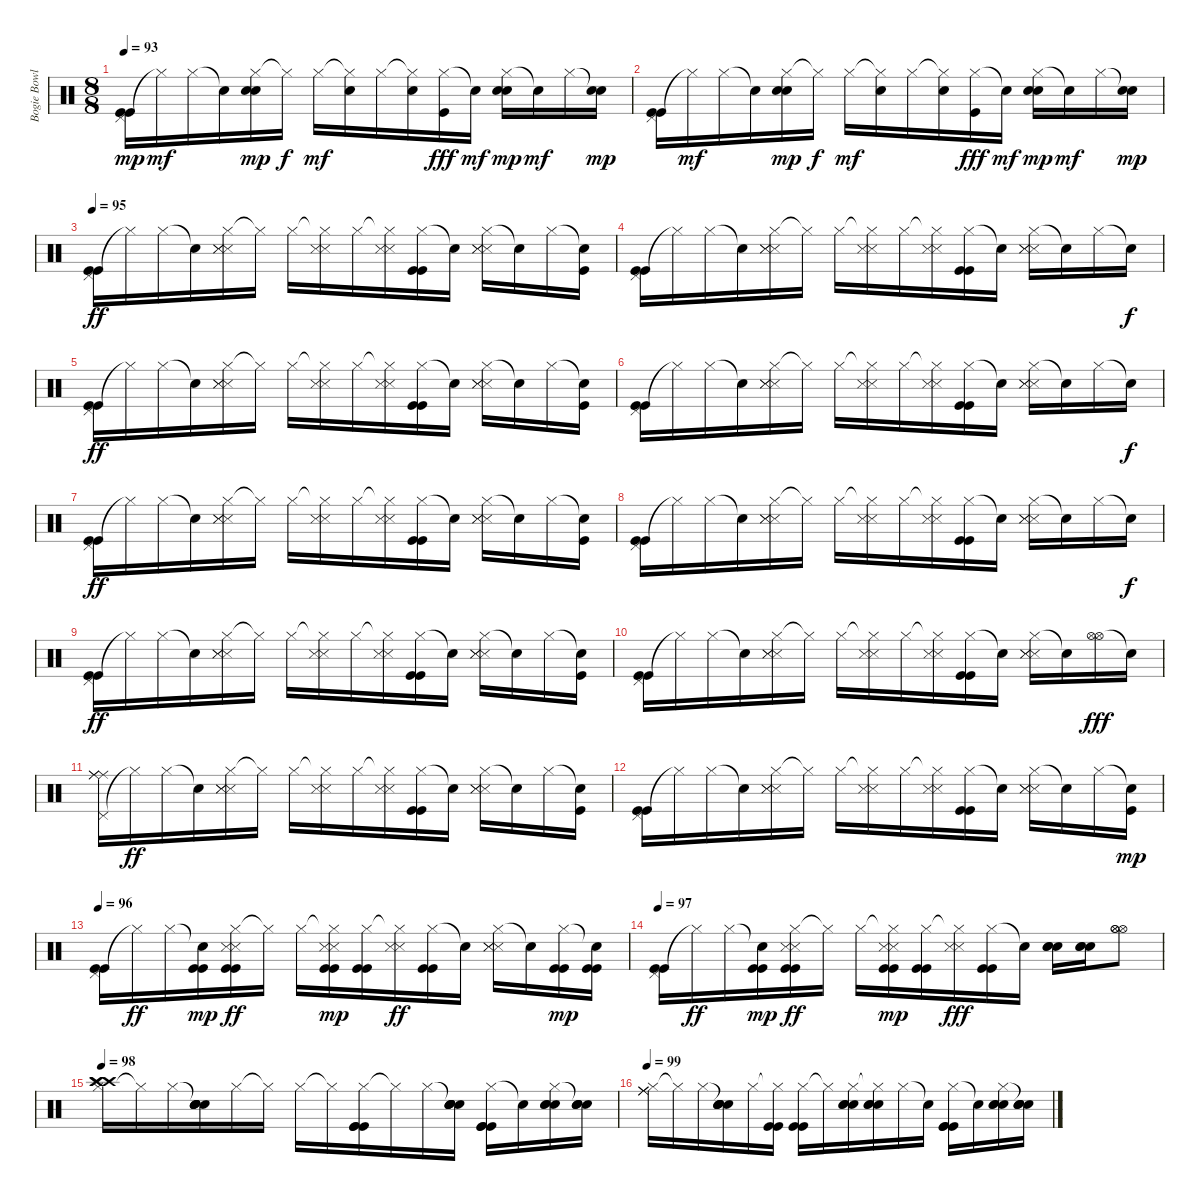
\track ("Bogie Bowles Drums" "Bogie Bowl") {instrument percussion}
\staff {score}
\articulation defaults
\ts (8 8)
\tempo 93
\clef neutral
\ks c
("Pedal Hi-Hat (hit)" "Kick (hit)" "Kick (hit)").16{dy mp} "Hi-Hat (closed)"{t}.16{dy mf} "Hi-Hat (closed)".16 "Snare (hit)"{t}.16 ("Hi-Hat (closed)" "Snare (hit) 2" "Snare (hit) 2").16{dy mp} "Hi-Hat (closed)"{t}.16{dy f} "Hi-Hat (closed)".16{dy mf} ("Hi-Hat (closed)"{t} "Snare (hit) 2").16 "Hi-Hat (closed)".16 ("Hi-Hat (closed)"{t} "Snare (hit) 2").16 ("Hi-Hat (closed)" "Kick (hit)").16{dy fff} "Snare (hit)"{t}.16{dy mf} ("Hi-Hat (closed)" "Snare (hit) 2" "Snare (hit) 2").16{dy mp} "Snare (hit)"{t}.16{dy mf} "Hi-Hat (closed)".16 ("Snare (hit)"{t} "Snare (hit) 2").16{dy mp} |
("Pedal Hi-Hat (hit)" "Kick (hit)" "Kick (hit)").16 "Hi-Hat (closed)"{t}.16{dy mf} "Hi-Hat (closed)".16 "Snare (hit)"{t}.16 ("Hi-Hat (closed)" "Snare (hit) 2" "Snare (hit) 2").16{dy mp} "Hi-Hat (closed)"{t}.16{dy f} "Hi-Hat (closed)".16{dy mf} ("Hi-Hat (closed)"{t} "Snare (hit) 2").16 "Hi-Hat (closed)".16 ("Hi-Hat (closed)"{t} "Snare (hit) 2").16 ("Hi-Hat (closed)" "Kick (hit)").16{dy fff} "Snare (hit)"{t}.16{dy mf} ("Hi-Hat (closed)" "Snare (hit) 2" "Snare (hit) 2").16{dy mp} "Snare (hit)"{t}.16{dy mf} "Hi-Hat (closed)".16 ("Snare (hit)"{t} "Snare (hit) 2").16{dy mp} |
\tempo 95
("Pedal Hi-Hat (hit)" "Kick (hit)" "Kick (hit)").16{dy ff} "Hi-Hat (closed)"{t}.16 "Hi-Hat (closed)".16 "Snare (hit)"{t}.16 ("Hi-Hat (closed)" "Snare (side stick) 3" "Snare (side stick) 3" "Snare (side stick) 3").16 "Hi-Hat (closed)"{t}.16 "Hi-Hat (closed)".16 ("Hi-Hat (closed)"{t} "Snare (side stick) 3" "Snare (side stick) 3").16 "Hi-Hat (closed)".16 ("Hi-Hat (closed)"{t} "Snare (side stick) 3" "Snare (side stick) 3").16 ("Hi-Hat (closed)" "Kick (hit)" "Kick (hit)").16 "Snare (hit)"{t}.16 ("Hi-Hat (closed)" "Snare (side stick) 3" "Snare (side stick) 3" "Snare (side stick) 3").16 "Snare (hit)"{t}.16 "Hi-Hat (closed)".16 ("Snare (hit)"{t} "Kick (hit)").16 |
("Pedal Hi-Hat (hit)" "Kick (hit)" "Kick (hit)").16 "Hi-Hat (closed)"{t}.16 "Hi-Hat (closed)".16 "Snare (hit)"{t}.16 ("Hi-Hat (closed)" "Snare (side stick) 3" "Snare (side stick) 3" "Snare (side stick) 3").16 "Hi-Hat (closed)"{t}.16 "Hi-Hat (closed)".16 ("Hi-Hat (closed)"{t} "Snare (side stick) 3" "Snare (side stick) 3").16 "Hi-Hat (closed)".16 ("Hi-Hat (closed)"{t} "Snare (side stick) 3" "Snare (side stick) 3").16 ("Hi-Hat (closed)" "Kick (hit)" "Kick (hit)").16 "Snare (hit)"{t}.16 ("Hi-Hat (closed)" "Snare (side stick) 3" "Snare (side stick) 3" "Snare (side stick) 3").16 "Snare (hit)"{t}.16 "Hi-Hat (closed)".16 "Snare (hit)"{t}.16{dy f} |
("Pedal Hi-Hat (hit)" "Kick (hit)" "Kick (hit)").16{dy ff} "Hi-Hat (closed)"{t}.16 "Hi-Hat (closed)".16 "Snare (hit)"{t}.16 ("Hi-Hat (closed)" "Snare (side stick) 3" "Snare (side stick) 3" "Snare (side stick) 3").16 "Hi-Hat (closed)"{t}.16 "Hi-Hat (closed)".16 ("Hi-Hat (closed)"{t} "Snare (side stick) 3" "Snare (side stick) 3").16 "Hi-Hat (closed)".16 ("Hi-Hat (closed)"{t} "Snare (side stick) 3" "Snare (side stick) 3").16 ("Hi-Hat (closed)" "Kick (hit)" "Kick (hit)").16 "Snare (hit)"{t}.16 ("Hi-Hat (closed)" "Snare (side stick) 3" "Snare (side stick) 3" "Snare (side stick) 3").16 "Snare (hit)"{t}.16 "Hi-Hat (closed)".16 ("Snare (hit)"{t} "Kick (hit)").16 |
("Pedal Hi-Hat (hit)" "Kick (hit)" "Kick (hit)").16 "Hi-Hat (closed)"{t}.16 "Hi-Hat (closed)".16 "Snare (hit)"{t}.16 ("Hi-Hat (closed)" "Snare (side stick) 3" "Snare (side stick) 3" "Snare (side stick) 3").16 "Hi-Hat (closed)"{t}.16 "Hi-Hat (closed)".16 ("Hi-Hat (closed)"{t} "Snare (side stick) 3" "Snare (side stick) 3").16 "Hi-Hat (closed)".16 ("Hi-Hat (closed)"{t} "Snare (side stick) 3" "Snare (side stick) 3").16 ("Hi-Hat (closed)" "Kick (hit)" "Kick (hit)").16 "Snare (hit)"{t}.16 ("Hi-Hat (closed)" "Snare (side stick) 3" "Snare (side stick) 3" "Snare (side stick) 3").16 "Snare (hit)"{t}.16 "Hi-Hat (closed)".16 "Snare (hit)"{t}.16{dy f} |
("Pedal Hi-Hat (hit)" "Kick (hit)" "Kick (hit)").16{dy ff} "Hi-Hat (closed)"{t}.16 "Hi-Hat (closed)".16 "Snare (hit)"{t}.16 ("Hi-Hat (closed)" "Snare (side stick) 3" "Snare (side stick) 3" "Snare (side stick) 3").16 "Hi-Hat (closed)"{t}.16 "Hi-Hat (closed)".16 ("Hi-Hat (closed)"{t} "Snare (side stick) 3" "Snare (side stick) 3").16 "Hi-Hat (closed)".16 ("Hi-Hat (closed)"{t} "Snare (side stick) 3" "Snare (side stick) 3").16 ("Hi-Hat (closed)" "Kick (hit)" "Kick (hit)").16 "Snare (hit)"{t}.16 ("Hi-Hat (closed)" "Snare (side stick) 3" "Snare (side stick) 3" "Snare (side stick) 3").16 "Snare (hit)"{t}.16 "Hi-Hat (closed)".16 ("Snare (hit)"{t} "Kick (hit)").16 |
("Pedal Hi-Hat (hit)" "Kick (hit)" "Kick (hit)").16 "Hi-Hat (closed)"{t}.16 "Hi-Hat (closed)".16 "Snare (hit)"{t}.16 ("Hi-Hat (closed)" "Snare (side stick) 3" "Snare (side stick) 3" "Snare (side stick) 3").16 "Hi-Hat (closed)"{t}.16 "Hi-Hat (closed)".16 ("Hi-Hat (closed)"{t} "Snare (side stick) 3" "Snare (side stick) 3").16 "Hi-Hat (closed)".16 ("Hi-Hat (closed)"{t} "Snare (side stick) 3" "Snare (side stick) 3").16 ("Hi-Hat (closed)" "Kick (hit)" "Kick (hit)").16 "Snare (hit)"{t}.16 ("Hi-Hat (closed)" "Snare (side stick) 3" "Snare (side stick) 3" "Snare (side stick) 3").16 "Snare (hit)"{t}.16 "Hi-Hat (closed)".16 "Snare (hit)"{t}.16{dy f} |
("Pedal Hi-Hat (hit)" "Kick (hit)" "Kick (hit)").16{dy ff} "Hi-Hat (closed)"{t}.16 "Hi-Hat (closed)".16 "Snare (hit)"{t}.16 ("Hi-Hat (closed)" "Snare (side stick) 3" "Snare (side stick) 3" "Snare (side stick) 3").16 "Hi-Hat (closed)"{t}.16 "Hi-Hat (closed)".16 ("Hi-Hat (closed)"{t} "Snare (side stick) 3" "Snare (side stick) 3").16 "Hi-Hat (closed)".16 ("Hi-Hat (closed)"{t} "Snare (side stick) 3" "Snare (side stick) 3").16 ("Hi-Hat (closed)" "Kick (hit)" "Kick (hit)").16 "Snare (hit)"{t}.16 ("Hi-Hat (closed)" "Snare (side stick) 3" "Snare (side stick) 3" "Snare (side stick) 3").16 "Snare (hit)"{t}.16 "Hi-Hat (closed)".16 ("Snare (hit)"{t} "Kick (hit)").16 |
("Pedal Hi-Hat (hit)" "Kick (hit)" "Kick (hit)").16 "Hi-Hat (closed)"{t}.16 "Hi-Hat (closed)".16 "Snare (hit)"{t}.16 ("Hi-Hat (closed)" "Snare (side stick) 3" "Snare (side stick) 3" "Snare (side stick) 3").16 "Hi-Hat (closed)"{t}.16 "Hi-Hat (closed)".16 ("Hi-Hat (closed)"{t} "Snare (side stick) 3" "Snare (side stick) 3").16 "Hi-Hat (closed)".16 ("Hi-Hat (closed)"{t} "Snare (side stick) 3" "Snare (side stick) 3").16 ("Hi-Hat (closed)" "Kick (hit)" "Kick (hit)").16 "Snare (hit)"{t}.16 ("Hi-Hat (closed)" "Snare (side stick) 3" "Snare (side stick) 3" "Snare (side stick) 3").16 "Snare (hit)"{t}.16 ("Hi-Hat (open)" "Hi-Hat (open)").16{dy fff} "Snare (hit)"{t}.16 |
("Pedal Hi-Hat (hit)" "Ride (middle)" "Ride (middle)" "Ride (middle)").16 "Hi-Hat (closed)"{t}.16{dy ff} "Hi-Hat (closed)".16 "Snare (hit)"{t}.16 ("Hi-Hat (closed)" "Snare (side stick) 3" "Snare (side stick) 3" "Snare (side stick) 3").16 "Hi-Hat (closed)"{t}.16 "Hi-Hat (closed)".16 ("Hi-Hat (closed)"{t} "Snare (side stick) 3" "Snare (side stick) 3").16 "Hi-Hat (closed)".16 ("Hi-Hat (closed)"{t} "Snare (side stick) 3" "Snare (side stick) 3").16 ("Hi-Hat (closed)" "Kick (hit)" "Kick (hit)").16 "Snare (hit)"{t}.16 ("Hi-Hat (closed)" "Snare (side stick) 3" "Snare (side stick) 3" "Snare (side stick) 3").16 "Snare (hit)"{t}.16 "Hi-Hat (closed)".16 ("Snare (hit)"{t} "Kick (hit)").16 |
("Pedal Hi-Hat (hit)" "Kick (hit)" "Kick (hit)").16 "Hi-Hat (closed)"{t}.16 "Hi-Hat (closed)".16 "Snare (hit)"{t}.16 ("Hi-Hat (closed)" "Snare (side stick) 3" "Snare (side stick) 3" "Snare (side stick) 3").16 "Hi-Hat (closed)"{t}.16 "Hi-Hat (closed)".16 ("Hi-Hat (closed)"{t} "Snare (side stick) 3" "Snare (side stick) 3").16 "Hi-Hat (closed)".16 ("Hi-Hat (closed)"{t} "Snare (side stick) 3" "Snare (side stick) 3").16 ("Hi-Hat (closed)" "Kick (hit)" "Kick (hit)").16 "Snare (hit)"{t}.16 ("Hi-Hat (closed)" "Snare (side stick) 3" "Snare (side stick) 3" "Snare (side stick) 3").16 "Snare (hit)"{t}.16 "Hi-Hat (closed)".16 ("Snare (hit)"{t} "Kick (hit)").16{dy mp} |
\tempo 96
("Pedal Hi-Hat (hit)" "Kick (hit)" "Kick (hit)").16 "Hi-Hat (closed)"{t}.16{dy ff} "Hi-Hat (closed)".16 ("Snare (hit)"{t} "Kick (hit)" "Kick (hit)").16{dy mp} ("Hi-Hat (closed)" "Snare (side stick) 3" "Snare (side stick) 3" "Kick (hit)" "Kick (hit)").16{dy ff} "Hi-Hat (closed)"{t}.16 "Hi-Hat (closed)".16 ("Hi-Hat (closed)"{t} "Snare (side stick) 3" "Snare (side stick) 3" "Kick (hit)" "Kick (hit)").16{dy mp} ("Hi-Hat (closed)" "Kick (hit)" "Kick (hit)").16 ("Hi-Hat (closed)"{t} "Snare (side stick) 3" "Snare (side stick) 3").16{dy ff} ("Hi-Hat (closed)" "Kick (hit)" "Kick (hit)").16 "Snare (hit)"{t}.16 ("Hi-Hat (closed)" "Snare (side stick) 3" "Snare (side stick) 3" "Snare (side stick) 3").16 "Snare (hit)"{t}.16 ("Hi-Hat (closed)" "Kick (hit)" "Kick (hit)").16{dy mp} ("Snare (hit)"{t} "Kick (hit)" "Kick (hit)").16 |
\tempo 97
("Pedal Hi-Hat (hit)" "Kick (hit)" "Kick (hit)").16 "Hi-Hat (closed)"{t}.16{dy ff} "Hi-Hat (closed)".16 ("Snare (hit)"{t} "Kick (hit)" "Kick (hit)").16{dy mp} ("Hi-Hat (closed)" "Snare (side stick) 3" "Snare (side stick) 3" "Kick (hit)" "Kick (hit)").16{dy ff} "Hi-Hat (closed)"{t}.16 "Hi-Hat (closed)".16 ("Hi-Hat (closed)"{t} "Snare (side stick) 3" "Snare (side stick) 3" "Kick (hit)" "Kick (hit)").16{dy mp} ("Hi-Hat (closed)" "Kick (hit)" "Kick (hit)").16 ("Hi-Hat (closed)"{t} "Snare (side stick) 3" "Snare (side stick) 3").16{dy fff} ("Hi-Hat (closed)" "Kick (hit)" "Kick (hit)").16 "Snare (hit)"{t}.16 ("Snare (hit) 2" "Snare (hit) 2" "Snare (hit) 2").16 ("Snare (hit) 2" "Snare (hit) 2" "Snare (hit) 2").16 ("Hi-Hat (open)" "Hi-Hat (open)" "Hi-Hat (open)").8 |
\tempo 98
("Hi-Hat (closed)" "Crash high (hit)" "Crash high (hit)" "Crash high (hit)").16 "Hi-Hat (closed)"{t}.16 "Hi-Hat (closed)".16 ("Snare (hit)"{t} "Snare (hit) 2" "Snare (hit) 2" "Snare (hit) 2" "Snare (hit) 2").16 "Hi-Hat (closed)".16 "Hi-Hat (closed)"{t}.16 "Hi-Hat (closed)".16 "Hi-Hat (closed)"{t}.16 ("Hi-Hat (closed)" "Kick (hit)" "Kick (hit)" "Kick (hit)").16 "Hi-Hat (closed)"{t}.16 "Hi-Hat (closed)".16 ("Snare (hit)"{t} "Snare (hit) 2" "Snare (hit) 2" "Snare (hit) 2" "Snare (hit) 2").16 ("Hi-Hat (closed)" "Kick (hit)" "Kick (hit)" "Kick (hit)").16 "Snare (hit)"{t}.16 ("Hi-Hat (closed)" "Snare (hit) 2" "Snare (hit) 2" "Snare (hit) 2").16 ("Snare (hit)"{t} "Snare (hit) 2" "Snare (hit) 2" "Snare (hit) 2").16 |
\tempo 99
("Hi-Hat (closed)" "Ride (middle)" "Ride (middle)" "Ride (middle)").16 "Hi-Hat (closed)"{t}.16 "Hi-Hat (closed)".16 ("Snare (hit)"{t} "Snare (hit) 2" "Snare (hit) 2" "Snare (hit) 2" "Snare (hit) 2").16 "Hi-Hat (closed)".16 ("Hi-Hat (closed)"{t} "Kick (hit)" "Kick (hit)").16 ("Hi-Hat (closed)" "Kick (hit)" "Kick (hit)").16 "Hi-Hat (closed)"{t}.16 ("Hi-Hat (closed)" "Snare (hit) 2" "Snare (hit) 2" "Snare (hit) 2").16 ("Hi-Hat (closed)"{t} "Snare (hit) 2" "Snare (hit) 2" "Snare (hit) 2").16 "Hi-Hat (closed)".16 "Snare (hit)"{t}.16 ("Hi-Hat (closed)" "Kick (hit)" "Kick (hit)" "Kick (hit)").16 "Snare (hit)"{t}.16 ("Hi-Hat (closed)" "Snare (hit) 2" "Snare (hit) 2" "Snare (hit) 2").16 ("Snare (hit)"{t} "Snare (hit) 2" "Snare (hit) 2" "Snare (hit) 2").16
